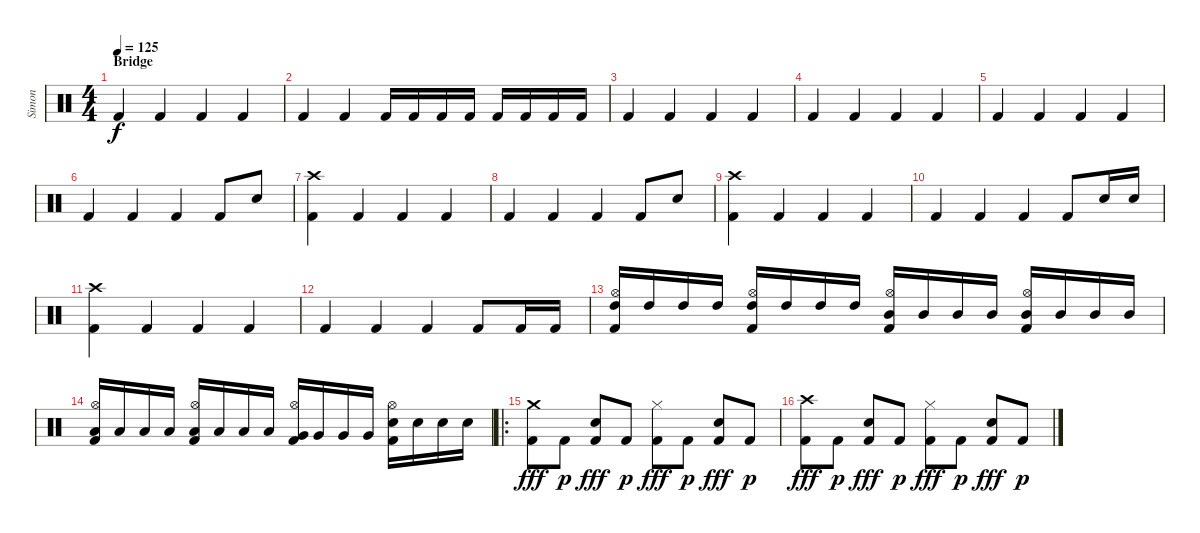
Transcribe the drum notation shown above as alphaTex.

\track ("Simon" "Simon") {instrument percussion}
\staff {score}
\articulation defaults
\ts (4 4)
\section ("" "Bridge")
\tempo 125
\clef neutral
\ks c "Kick (hit) 2".4{dy f} "Kick (hit) 2".4 "Kick (hit) 2".4 "Kick (hit) 2".4
|
"Kick (hit) 2".4 "Kick (hit) 2".4 "Kick (hit) 2".16 "Kick (hit) 2".16 "Kick (hit) 2".16 "Kick (hit) 2".16 "Kick (hit) 2".16 "Kick (hit) 2".16 "Kick (hit) 2".16 "Kick (hit) 2".16 |
"Kick (hit) 2".4 "Kick (hit) 2".4 "Kick (hit) 2".4 "Kick (hit) 2".4 |
"Kick (hit) 2".4 "Kick (hit) 2".4 "Kick (hit) 2".4 "Kick (hit) 2".4 |
"Kick (hit) 2".4 "Kick (hit) 2".4 "Kick (hit) 2".4 "Kick (hit) 2".4 |
"Kick (hit) 2".4 "Kick (hit) 2".4 "Kick (hit) 2".4 "Kick (hit) 2".8 "Snare (hit) 2".8 |
("Crash high (hit)" "Kick (hit) 2").4 "Kick (hit) 2".4 "Kick (hit) 2".4 "Kick (hit) 2".4 |
"Kick (hit) 2".4 "Kick (hit) 2".4 "Kick (hit) 2".4 "Kick (hit) 2".8 "Snare (hit) 2".8 |
("Crash high (hit)" "Kick (hit) 2").4 "Kick (hit) 2".4 "Kick (hit) 2".4 "Kick (hit) 2".4 |
"Kick (hit) 2".4 "Kick (hit) 2".4 "Kick (hit) 2".4 "Kick (hit) 2".8 "Snare (hit) 2".16 "Snare (hit) 2".16 |
("Crash high (hit)" "Kick (hit) 2").4 "Kick (hit) 2".4 "Kick (hit) 2".4 "Kick (hit) 2".4 |
"Kick (hit) 2".4 "Kick (hit) 2".4 "Kick (hit) 2".4 "Kick (hit) 2".8 "Kick (hit) 2".16 "Kick (hit) 2".16 |
("Hi-Hat (open)" "High Tom (hit)" "Kick (hit) 2").16 "High Tom (hit)".16 "High Tom (hit)".16 "High Tom (hit)".16 ("Hi-Hat (open)" "High Tom (hit)" "Kick (hit) 2").16 "High Tom (hit)".16 "High Tom (hit)".16 "High Tom (hit)".16 ("Hi-Hat (open)" "Mid Tom (hit)" "Kick (hit) 2").16 "Mid Tom (hit)".16 "Mid Tom (hit)".16 "Mid Tom (hit)".16 ("Hi-Hat (open)" "Mid Tom (hit)" "Kick (hit) 2").16 "Mid Tom (hit)".16 "Mid Tom (hit)".16 "Mid Tom (hit)".16 |
("Hi-Hat (open)" "Low Tom (hit)" "Kick (hit) 2").16 "Low Tom (hit)".16 "Low Tom (hit)".16 "Low Tom (hit)".16 ("Hi-Hat (open)" "Low Tom (hit)" "Kick (hit) 2").16 "Low Tom (hit)".16 "Low Tom (hit)".16 "Low Tom (hit)".16 ("Hi-Hat (open)" "Very Low Tom (hit)" "Kick (hit) 2").16 "Very Low Tom (hit)".16 "Very Low Tom (hit)".16 "Very Low Tom (hit)".16 ("Hi-Hat (open)" "Snare (hit) 2" "Kick (hit) 2").16 "Snare (hit) 2".16 "Snare (hit) 2".16 "Snare (hit) 2".16 |
\ro
("Crash medium (hit)" "Kick (hit) 2").8{dy fff} "Kick (hit) 2".8{dy p} ("Snare (hit) 2" "Kick (hit) 2").8{dy fff} "Kick (hit) 2".8{dy p} ("Hi-Hat (closed)" "Kick (hit) 2").8{dy fff} "Kick (hit) 2".8{dy p} ("Snare (hit) 2" "Kick (hit) 2").8{dy fff} "Kick (hit) 2".8{dy p} |
("Crash high (hit)" "Kick (hit) 2").8{dy fff} "Kick (hit) 2".8{dy p} ("Snare (hit) 2" "Kick (hit) 2").8{dy fff} "Kick (hit) 2".8{dy p} ("Hi-Hat (closed)" "Kick (hit) 2").8{dy fff} "Kick (hit) 2".8{dy p} ("Snare (hit) 2" "Kick (hit) 2").8{dy fff} "Kick (hit) 2".8{dy p}
